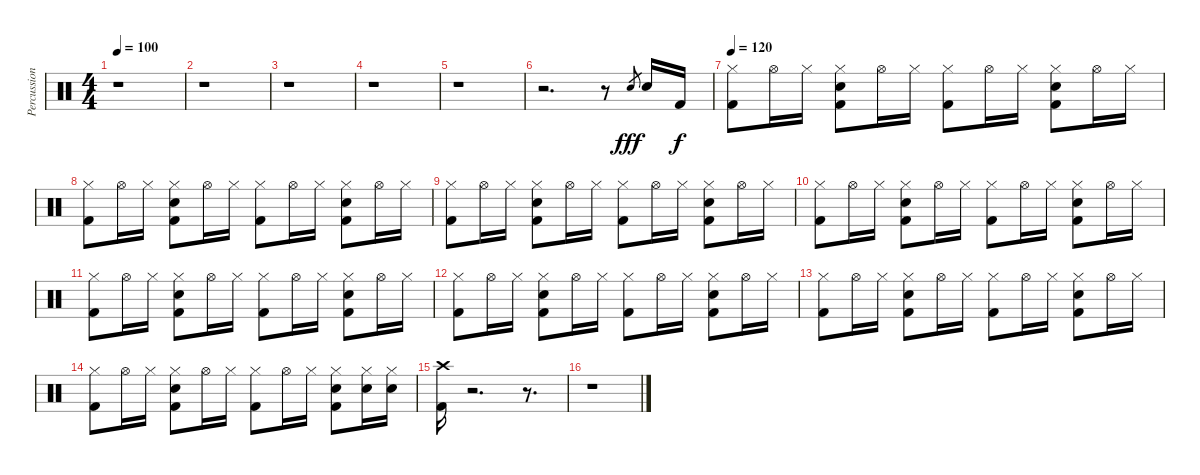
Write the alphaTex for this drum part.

\track ("Percussion" "Percussion") {instrument percussion}
\staff {score}
\articulation defaults
\ts (4 4)
\tempo 100
\clef neutral
\ks c
r.1{dy fff} |
r.1 |
r.1 |
r.1 |
r.1 |
r.2{d} r.8 "Snare (hit) 2".8{gr} "Snare (hit) 2".16 "Kick (hit) 2".16{dy f} |
\tempo 120
("Hi-Hat (closed)" "Kick (hit) 2").8{volume 1} "Hi-Hat (open)".16{volume 3} "Hi-Hat (closed)".16 ("Hi-Hat (closed)" "Snare (hit) 2" "Kick (hit) 2").8 "Hi-Hat (open)".16 "Hi-Hat (closed)".16 ("Hi-Hat (closed)" "Kick (hit) 2").8 "Hi-Hat (open)".16 "Hi-Hat (closed)".16 ("Hi-Hat (closed)" "Snare (hit) 2" "Kick (hit) 2").8 "Hi-Hat (open)".16 "Hi-Hat (closed)".16 |
("Hi-Hat (closed)" "Kick (hit) 2").8{volume 5} "Hi-Hat (open)".16 "Hi-Hat (closed)".16 ("Hi-Hat (closed)" "Snare (hit) 2" "Kick (hit) 2").8 "Hi-Hat (open)".16 "Hi-Hat (closed)".16 ("Hi-Hat (closed)" "Kick (hit) 2").8 "Hi-Hat (open)".16 "Hi-Hat (closed)".16 ("Hi-Hat (closed)" "Snare (hit) 2" "Kick (hit) 2").8 "Hi-Hat (open)".16 "Hi-Hat (closed)".16 |
("Hi-Hat (closed)" "Kick (hit) 2").8{volume 8} "Hi-Hat (open)".16 "Hi-Hat (closed)".16 ("Hi-Hat (closed)" "Snare (hit) 2" "Kick (hit) 2").8 "Hi-Hat (open)".16 "Hi-Hat (closed)".16 ("Hi-Hat (closed)" "Kick (hit) 2").8 "Hi-Hat (open)".16 "Hi-Hat (closed)".16 ("Hi-Hat (closed)" "Snare (hit) 2" "Kick (hit) 2").8 "Hi-Hat (open)".16 "Hi-Hat (closed)".16 |
("Hi-Hat (closed)" "Kick (hit) 2").8{volume 12} "Hi-Hat (open)".16 "Hi-Hat (closed)".16 ("Hi-Hat (closed)" "Snare (hit) 2" "Kick (hit) 2").8 "Hi-Hat (open)".16 "Hi-Hat (closed)".16 ("Hi-Hat (closed)" "Kick (hit) 2").8 "Hi-Hat (open)".16 "Hi-Hat (closed)".16 ("Hi-Hat (closed)" "Snare (hit) 2" "Kick (hit) 2").8 "Hi-Hat (open)".16 "Hi-Hat (closed)".16 |
("Hi-Hat (closed)" "Kick (hit) 2").8 "Hi-Hat (open)".16 "Hi-Hat (closed)".16 ("Hi-Hat (closed)" "Snare (hit) 2" "Kick (hit) 2").8 "Hi-Hat (open)".16 "Hi-Hat (closed)".16 ("Hi-Hat (closed)" "Kick (hit) 2").8 "Hi-Hat (open)".16 "Hi-Hat (closed)".16 ("Hi-Hat (closed)" "Snare (hit) 2" "Kick (hit) 2").8 "Hi-Hat (open)".16 "Hi-Hat (closed)".16 |
("Hi-Hat (closed)" "Kick (hit) 2").8 "Hi-Hat (open)".16 "Hi-Hat (closed)".16 ("Hi-Hat (closed)" "Snare (hit) 2" "Kick (hit) 2").8 "Hi-Hat (open)".16 "Hi-Hat (closed)".16 ("Hi-Hat (closed)" "Kick (hit) 2").8 "Hi-Hat (open)".16 "Hi-Hat (closed)".16 ("Hi-Hat (closed)" "Snare (hit) 2" "Kick (hit) 2").8 "Hi-Hat (open)".16 "Hi-Hat (closed)".16 |
("Hi-Hat (closed)" "Kick (hit) 2").8 "Hi-Hat (open)".16 "Hi-Hat (closed)".16 ("Hi-Hat (closed)" "Snare (hit) 2" "Kick (hit) 2").8 "Hi-Hat (open)".16 "Hi-Hat (closed)".16 ("Hi-Hat (closed)" "Kick (hit) 2").8 "Hi-Hat (open)".16 "Hi-Hat (closed)".16 ("Hi-Hat (closed)" "Snare (hit) 2" "Kick (hit) 2").8 "Hi-Hat (open)".16 "Hi-Hat (closed)".16 |
("Hi-Hat (closed)" "Kick (hit) 2").8 "Hi-Hat (open)".16 "Hi-Hat (closed)".16 ("Hi-Hat (closed)" "Snare (hit) 2" "Kick (hit) 2").8 "Hi-Hat (open)".16 "Hi-Hat (closed)".16 ("Hi-Hat (closed)" "Kick (hit) 2").8 "Hi-Hat (open)".16 "Hi-Hat (closed)".16 ("Hi-Hat (closed)" "Snare (hit) 2" "Kick (hit) 2").8 ("Hi-Hat (closed)" "Snare (hit) 2").16 ("Hi-Hat (closed)" "Snare (hit) 2").16 |
("Crash high (hit)" "Kick (hit) 2").16 r.2{d} r.8{d} |
r.1
